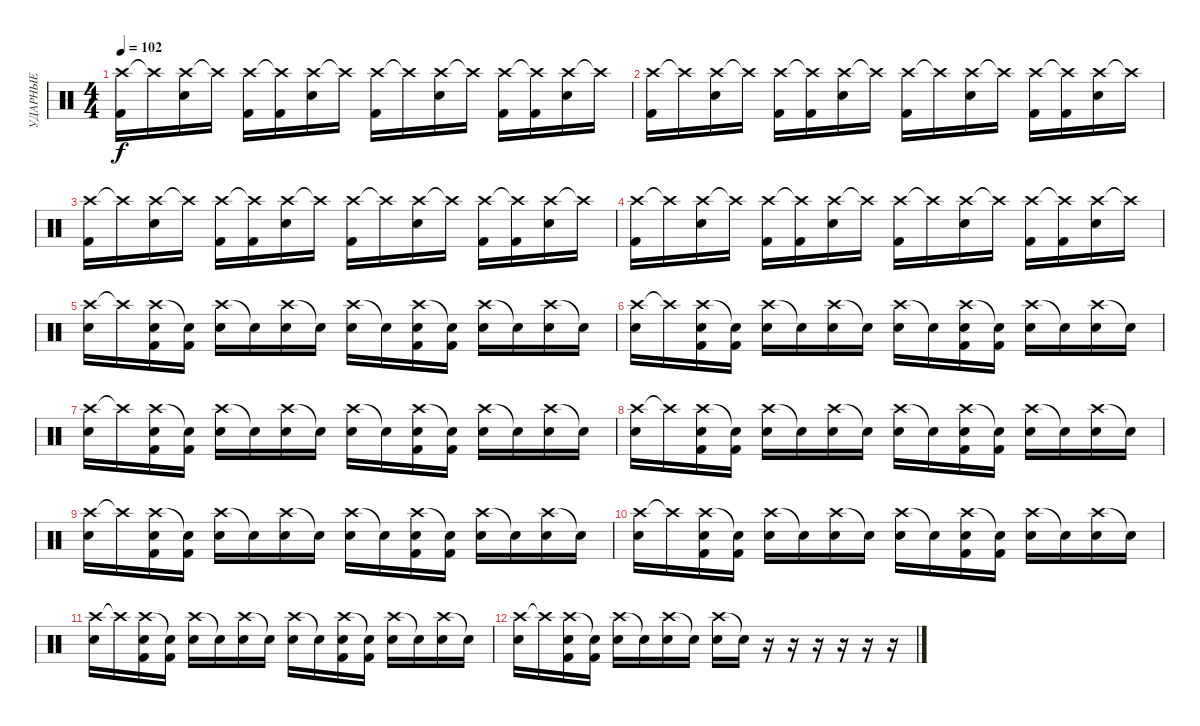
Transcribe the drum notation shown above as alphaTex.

\track ("УДАРНЫЕ" "УДАРНЫЕ") {instrument percussion}
\staff {score}
\articulation defaults
\ts (4 4)
\tempo 102
\clef neutral
\ks c
("Crash high (hit)" "Kick (hit) 2").16{dy f} "Crash high (hit)"{t}.16 ("Crash high (hit)" "Electric Snare (hit)").16 "Crash high (hit)"{t}.16 ("Crash high (hit)" "Kick (hit) 2").16 ("Crash high (hit)"{t} "Kick (hit) 2").16 ("Crash high (hit)" "Electric Snare (hit)").16 "Crash high (hit)"{t}.16 ("Crash high (hit)" "Kick (hit) 2").16 "Crash high (hit)"{t}.16 ("Crash high (hit)" "Electric Snare (hit)").16 "Crash high (hit)"{t}.16 ("Crash high (hit)" "Kick (hit) 2").16 ("Crash high (hit)"{t} "Kick (hit) 2").16 ("Crash high (hit)" "Electric Snare (hit)").16 "Crash high (hit)"{t}.16 |
("Crash high (hit)" "Kick (hit) 2").16 "Crash high (hit)"{t}.16 ("Crash high (hit)" "Electric Snare (hit)").16 "Crash high (hit)"{t}.16 ("Crash high (hit)" "Kick (hit) 2").16 ("Crash high (hit)"{t} "Kick (hit) 2").16 ("Crash high (hit)" "Electric Snare (hit)").16 "Crash high (hit)"{t}.16 ("Crash high (hit)" "Kick (hit) 2").16 "Crash high (hit)"{t}.16 ("Crash high (hit)" "Electric Snare (hit)").16 "Crash high (hit)"{t}.16 ("Crash high (hit)" "Kick (hit) 2").16 ("Crash high (hit)"{t} "Kick (hit) 2").16 ("Crash high (hit)" "Electric Snare (hit)").16 "Crash high (hit)"{t}.16 |
("Crash high (hit)" "Kick (hit) 2").16 "Crash high (hit)"{t}.16 ("Crash high (hit)" "Electric Snare (hit)").16 "Crash high (hit)"{t}.16 ("Crash high (hit)" "Kick (hit) 2").16 ("Crash high (hit)"{t} "Kick (hit) 2").16 ("Crash high (hit)" "Electric Snare (hit)").16 "Crash high (hit)"{t}.16 ("Crash high (hit)" "Kick (hit) 2").16 "Crash high (hit)"{t}.16 ("Crash high (hit)" "Electric Snare (hit)").16 "Crash high (hit)"{t}.16 ("Crash high (hit)" "Kick (hit) 2").16 ("Crash high (hit)"{t} "Kick (hit) 2").16 ("Crash high (hit)" "Electric Snare (hit)").16 "Crash high (hit)"{t}.16 |
("Crash high (hit)" "Kick (hit) 2").16 "Crash high (hit)"{t}.16 ("Crash high (hit)" "Electric Snare (hit)").16 "Crash high (hit)"{t}.16 ("Crash high (hit)" "Kick (hit) 2").16 ("Crash high (hit)"{t} "Kick (hit) 2").16 ("Crash high (hit)" "Electric Snare (hit)").16 "Crash high (hit)"{t}.16 ("Crash high (hit)" "Kick (hit) 2").16 "Crash high (hit)"{t}.16 ("Crash high (hit)" "Electric Snare (hit)").16 "Crash high (hit)"{t}.16 ("Crash high (hit)" "Kick (hit) 2").16 ("Crash high (hit)"{t} "Kick (hit) 2").16 ("Crash high (hit)" "Electric Snare (hit)").16 "Crash high (hit)"{t}.16 |
("Crash high (hit)" "Electric Snare (hit)").16 "Crash high (hit)"{t}.16 ("Crash high (hit)" "Kick (hit) 2" "Electric Snare (hit)").16 ("Snare (hit)"{t} "Kick (hit) 2").16 ("Crash high (hit)" "Electric Snare (hit)").16 "Snare (hit)"{t}.16 ("Crash high (hit)" "Electric Snare (hit)").16 "Snare (hit)"{t}.16 ("Crash high (hit)" "Electric Snare (hit)").16 "Snare (hit)"{t}.16 ("Crash high (hit)" "Kick (hit) 2" "Electric Snare (hit)").16 ("Snare (hit)"{t} "Kick (hit) 2").16 ("Crash high (hit)" "Electric Snare (hit)").16 "Snare (hit)"{t}.16 ("Crash high (hit)" "Electric Snare (hit)").16 "Snare (hit)"{t}.16 |
("Crash high (hit)" "Electric Snare (hit)").16 "Crash high (hit)"{t}.16 ("Crash high (hit)" "Kick (hit) 2" "Electric Snare (hit)").16 ("Snare (hit)"{t} "Kick (hit) 2").16 ("Crash high (hit)" "Electric Snare (hit)").16 "Snare (hit)"{t}.16 ("Crash high (hit)" "Electric Snare (hit)").16 "Snare (hit)"{t}.16 ("Crash high (hit)" "Electric Snare (hit)").16 "Snare (hit)"{t}.16 ("Crash high (hit)" "Kick (hit) 2" "Electric Snare (hit)").16 ("Snare (hit)"{t} "Kick (hit) 2").16 ("Crash high (hit)" "Electric Snare (hit)").16 "Snare (hit)"{t}.16 ("Crash high (hit)" "Electric Snare (hit)").16 "Snare (hit)"{t}.16 |
("Crash high (hit)" "Electric Snare (hit)").16 "Crash high (hit)"{t}.16 ("Crash high (hit)" "Kick (hit) 2" "Electric Snare (hit)").16 ("Snare (hit)"{t} "Kick (hit) 2").16 ("Crash high (hit)" "Electric Snare (hit)").16 "Snare (hit)"{t}.16 ("Crash high (hit)" "Electric Snare (hit)").16 "Snare (hit)"{t}.16 ("Crash high (hit)" "Electric Snare (hit)").16 "Snare (hit)"{t}.16 ("Crash high (hit)" "Kick (hit) 2" "Electric Snare (hit)").16 ("Snare (hit)"{t} "Kick (hit) 2").16 ("Crash high (hit)" "Electric Snare (hit)").16 "Snare (hit)"{t}.16 ("Crash high (hit)" "Electric Snare (hit)").16 "Snare (hit)"{t}.16 |
("Crash high (hit)" "Electric Snare (hit)").16 "Crash high (hit)"{t}.16 ("Crash high (hit)" "Kick (hit) 2" "Electric Snare (hit)").16 ("Snare (hit)"{t} "Kick (hit) 2").16 ("Crash high (hit)" "Electric Snare (hit)").16 "Snare (hit)"{t}.16 ("Crash high (hit)" "Electric Snare (hit)").16 "Snare (hit)"{t}.16 ("Crash high (hit)" "Electric Snare (hit)").16 "Snare (hit)"{t}.16 ("Crash high (hit)" "Kick (hit) 2" "Electric Snare (hit)").16 ("Snare (hit)"{t} "Kick (hit) 2").16 ("Crash high (hit)" "Electric Snare (hit)").16 "Snare (hit)"{t}.16 ("Crash high (hit)" "Electric Snare (hit)").16 "Snare (hit)"{t}.16 |
("Crash high (hit)" "Electric Snare (hit)").16 "Crash high (hit)"{t}.16 ("Crash high (hit)" "Kick (hit) 2" "Electric Snare (hit)").16 ("Snare (hit)"{t} "Kick (hit) 2").16 ("Crash high (hit)" "Electric Snare (hit)").16 "Snare (hit)"{t}.16 ("Crash high (hit)" "Electric Snare (hit)").16 "Snare (hit)"{t}.16 ("Crash high (hit)" "Electric Snare (hit)").16 "Snare (hit)"{t}.16 ("Crash high (hit)" "Kick (hit) 2" "Electric Snare (hit)").16 ("Snare (hit)"{t} "Kick (hit) 2").16 ("Crash high (hit)" "Electric Snare (hit)").16 "Snare (hit)"{t}.16 ("Crash high (hit)" "Electric Snare (hit)").16 "Snare (hit)"{t}.16 |
("Crash high (hit)" "Electric Snare (hit)").16 "Crash high (hit)"{t}.16 ("Crash high (hit)" "Kick (hit) 2" "Electric Snare (hit)").16 ("Snare (hit)"{t} "Kick (hit) 2").16 ("Crash high (hit)" "Electric Snare (hit)").16 "Snare (hit)"{t}.16 ("Crash high (hit)" "Electric Snare (hit)").16 "Snare (hit)"{t}.16 ("Crash high (hit)" "Electric Snare (hit)").16 "Snare (hit)"{t}.16 ("Crash high (hit)" "Kick (hit) 2" "Electric Snare (hit)").16 ("Snare (hit)"{t} "Kick (hit) 2").16 ("Crash high (hit)" "Electric Snare (hit)").16 "Snare (hit)"{t}.16 ("Crash high (hit)" "Electric Snare (hit)").16 "Snare (hit)"{t}.16 |
("Crash high (hit)" "Electric Snare (hit)").16 "Crash high (hit)"{t}.16 ("Crash high (hit)" "Kick (hit) 2" "Electric Snare (hit)").16 ("Snare (hit)"{t} "Kick (hit) 2").16 ("Crash high (hit)" "Electric Snare (hit)").16 "Snare (hit)"{t}.16 ("Crash high (hit)" "Electric Snare (hit)").16 "Snare (hit)"{t}.16 ("Crash high (hit)" "Electric Snare (hit)").16 "Snare (hit)"{t}.16 ("Crash high (hit)" "Kick (hit) 2" "Electric Snare (hit)").16 ("Snare (hit)"{t} "Kick (hit) 2").16 ("Crash high (hit)" "Electric Snare (hit)").16 "Snare (hit)"{t}.16 ("Crash high (hit)" "Electric Snare (hit)").16 "Snare (hit)"{t}.16 |
("Crash high (hit)" "Electric Snare (hit)").16 "Crash high (hit)"{t}.16 ("Crash high (hit)" "Kick (hit) 2" "Electric Snare (hit)").16 ("Snare (hit)"{t} "Kick (hit) 2").16 ("Crash high (hit)" "Electric Snare (hit)").16 "Snare (hit)"{t}.16 ("Crash high (hit)" "Electric Snare (hit)").16 "Snare (hit)"{t}.16 ("Crash high (hit)" "Electric Snare (hit)").16 "Snare (hit)"{t}.16 r.16 r.16 r.16 r.16 r.16 r.16
